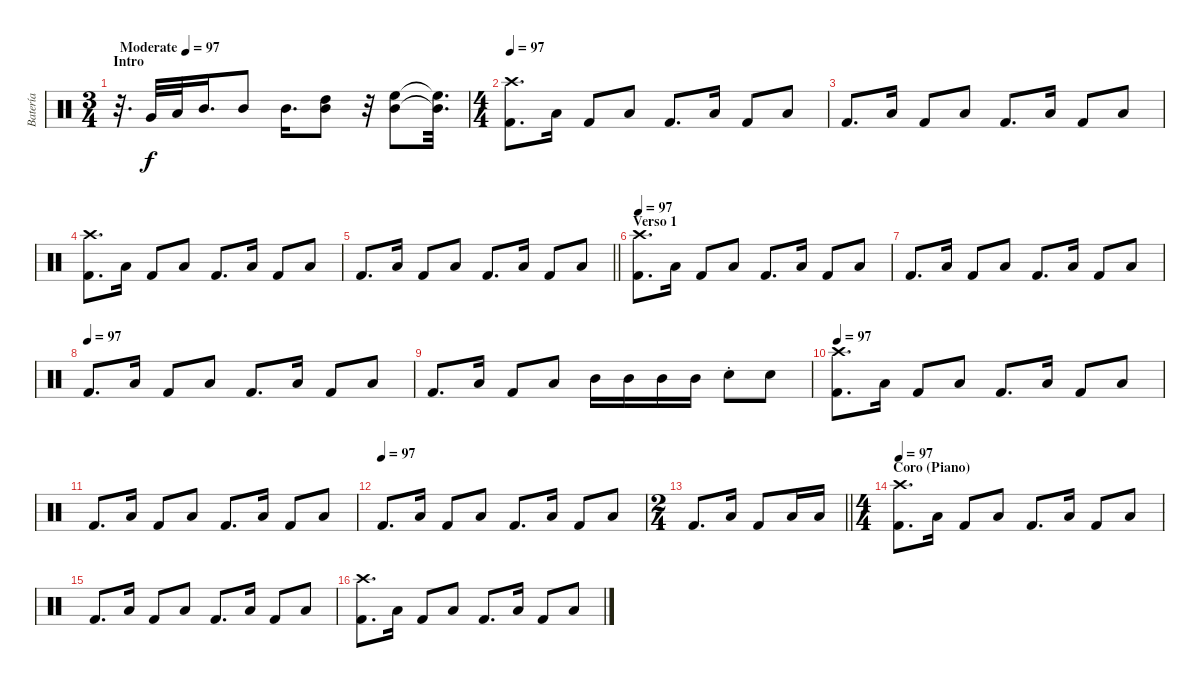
\track ("Batería" "Batería") {instrument percussion}
\staff {score}
\articulation defaults
\ts (3 4)
\section ("" "Intro")
\tempo (97 "Moderate")
\tempo 125
\tempo (97 "Moderate")
\clef neutral
\ks c
r.32{d dy f} "Very Low Tom (hit)".32 "Low Tom (hit)".32 "Mid Tom (hit)".16{d} "Mid Tom (hit)".8 "Mid Tom (hit)".16{d} ("Mid Tom (hit)" "High Tom (hit)").8 r.32 ("Mid Tom (hit)" "High Floor Tom (hit)").8 ("Mid Tom (hit)"{t} "High Floor Tom (hit)"{t}).32{d} |
\ts (4 4)
\tempo 97
("Crash high (hit)" "Kick (hit) 2").8{d} "Low Tom (hit)".16 "Kick (hit) 2".8 "Low Tom (hit)".8 "Kick (hit) 2".8{d} "Low Tom (hit)".16 "Kick (hit) 2".8 "Low Tom (hit)".8 |
"Kick (hit) 2".8{d} "Low Tom (hit)".16 "Kick (hit) 2".8 "Low Tom (hit)".8 "Kick (hit) 2".8{d} "Low Tom (hit)".16 "Kick (hit) 2".8 "Low Tom (hit)".8 |
("Kick (hit) 2" "Crash high (hit)").8{d} "Low Tom (hit)".16 "Kick (hit) 2".8 "Low Tom (hit)".8 "Kick (hit) 2".8{d} "Low Tom (hit)".16 "Kick (hit) 2".8 "Low Tom (hit)".8 |
\barLineRight lightlight "Kick (hit) 2".8{d} "Low Tom (hit)".16 "Kick (hit) 2".8 "Low Tom (hit)".8 "Kick (hit) 2".8{d} "Low Tom (hit)".16 "Kick (hit) 2".8 "Low Tom (hit)".8
|
\section ("" "Verso 1")
\tempo 97
("Crash high (hit)" "Kick (hit) 2").8{d} "Low Tom (hit)".16 "Kick (hit) 2".8 "Low Tom (hit)".8 "Kick (hit) 2".8{d} "Low Tom (hit)".16 "Kick (hit) 2".8 "Low Tom (hit)".8 |
"Kick (hit) 2".8{d} "Low Tom (hit)".16 "Kick (hit) 2".8 "Low Tom (hit)".8 "Kick (hit) 2".8{d} "Low Tom (hit)".16 "Kick (hit) 2".8 "Low Tom (hit)".8 |
\tempo (97)
"Kick (hit) 2".8{d} "Low Tom (hit)".16 "Kick (hit) 2".8 "Low Tom (hit)".8 "Kick (hit) 2".8{d} "Low Tom (hit)".16 "Kick (hit) 2".8 "Low Tom (hit)".8 |
"Kick (hit) 2".8{d} "Low Tom (hit)".16 "Kick (hit) 2".8 "Low Tom (hit)".8 "Mid Tom (hit)".16 "Mid Tom (hit)".16 "Mid Tom (hit)".16 "Mid Tom (hit)".16 "Snare (hit) 2"{st}.8 "Snare (hit) 2".8 |
\tempo 97
("Crash high (hit)" "Kick (hit) 2").8{d} "Low Tom (hit)".16 "Kick (hit) 2".8 "Low Tom (hit)".8 "Kick (hit) 2".8{d} "Low Tom (hit)".16 "Kick (hit) 2".8 "Low Tom (hit)".8 |
"Kick (hit) 2".8{d} "Low Tom (hit)".16 "Kick (hit) 2".8 "Low Tom (hit)".8 "Kick (hit) 2".8{d} "Low Tom (hit)".16 "Kick (hit) 2".8 "Low Tom (hit)".8 |
\tempo (97)
"Kick (hit) 2".8{d} "Low Tom (hit)".16 "Kick (hit) 2".8 "Low Tom (hit)".8 "Kick (hit) 2".8{d} "Low Tom (hit)".16 "Kick (hit) 2".8 "Low Tom (hit)".8 |
\ts (2 4)
\barLineRight lightlight "Kick (hit) 2".8{d} "Low Tom (hit)".16 "Kick (hit) 2".8 "Low Tom (hit)".16 "Low Tom (hit)".16
|
\ts (4 4)
\section ("" "Coro (Piano)")
\tempo 97
("Crash high (hit)" "Kick (hit) 2").8{d} "Low Tom (hit)".16 "Kick (hit) 2".8 "Low Tom (hit)".8 "Kick (hit) 2".8{d} "Low Tom (hit)".16 "Kick (hit) 2".8 "Low Tom (hit)".8 |
"Kick (hit) 2".8{d} "Low Tom (hit)".16 "Kick (hit) 2".8 "Low Tom (hit)".8 "Kick (hit) 2".8{d} "Low Tom (hit)".16 "Kick (hit) 2".8 "Low Tom (hit)".8 |
("Kick (hit) 2" "Crash high (hit)").8{d} "Low Tom (hit)".16 "Kick (hit) 2".8 "Low Tom (hit)".8 "Kick (hit) 2".8{d} "Low Tom (hit)".16 "Kick (hit) 2".8 "Low Tom (hit)".8
